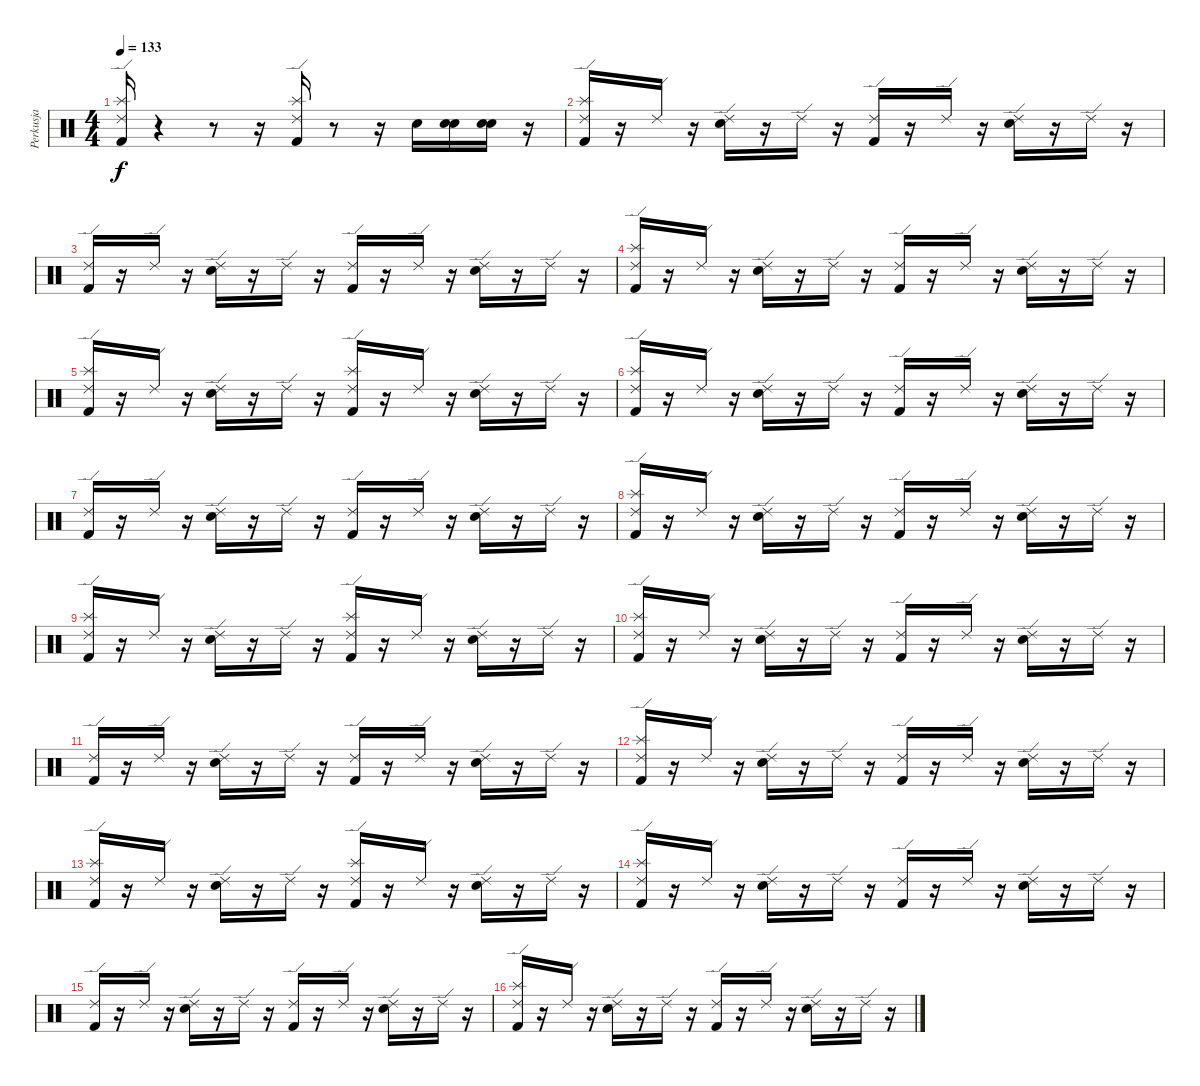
\track ("Perkusja" "Perkusja") {instrument percussion}
\staff {score}
\articulation defaults
\ts (4 4)
\tempo 133
\clef neutral
\ks c
("Kick (hit) 2" "Splash (hit)" "Ride (edge) 2").16{dy f} r.4 r.8 r.16 ("Kick (hit) 2" "Splash (hit)" "Ride (edge) 2").16 r.8 r.16 "Snare (hit) 2".16 ("Snare (hit)" "Snare (hit) 2").16 ("Snare (hit)" "Snare (hit) 2").16 r.16 |
("Splash (hit)" "Ride (edge) 2" "Kick (hit) 2").16 r.16 "Ride (edge) 2".16 r.16 ("Snare (hit) 2" "Ride (edge) 2").16 r.16 "Ride (edge) 2".16 r.16 ("Kick (hit) 2" "Ride (edge) 2").16 r.16 "Ride (edge) 2".16 r.16 ("Snare (hit) 2" "Ride (edge) 2").16 r.16 "Ride (edge) 2".16 r.16 |
("Ride (edge) 2" "Kick (hit) 2").16 r.16 "Ride (edge) 2".16 r.16 ("Snare (hit) 2" "Ride (edge) 2").16 r.16 "Ride (edge) 2".16 r.16 ("Kick (hit) 2" "Ride (edge) 2").16 r.16 "Ride (edge) 2".16 r.16 ("Snare (hit) 2" "Ride (edge) 2").16 r.16 "Ride (edge) 2".16 r.16 |
("Splash (hit)" "Ride (edge) 2" "Kick (hit) 2").16 r.16 "Ride (edge) 2".16 r.16 ("Snare (hit) 2" "Ride (edge) 2").16 r.16 "Ride (edge) 2".16 r.16 ("Kick (hit) 2" "Ride (edge) 2").16 r.16 "Ride (edge) 2".16 r.16 ("Snare (hit) 2" "Ride (edge) 2").16 r.16 "Ride (edge) 2".16 r.16 |
("Splash (hit)" "Ride (edge) 2" "Kick (hit) 2").16 r.16 "Ride (edge) 2".16 r.16 ("Snare (hit) 2" "Ride (edge) 2").16 r.16 "Ride (edge) 2".16 r.16 ("Splash (hit)" "Kick (hit) 2" "Ride (edge) 2").16 r.16 "Ride (edge) 2".16 r.16 ("Snare (hit) 2" "Ride (edge) 2").16 r.16 "Ride (edge) 2".16 r.16 |
("Splash (hit)" "Ride (edge) 2" "Kick (hit) 2").16 r.16 "Ride (edge) 2".16 r.16 ("Snare (hit) 2" "Ride (edge) 2").16 r.16 "Ride (edge) 2".16 r.16 ("Kick (hit) 2" "Ride (edge) 2").16 r.16 "Ride (edge) 2".16 r.16 ("Snare (hit) 2" "Ride (edge) 2").16 r.16 "Ride (edge) 2".16 r.16 |
("Ride (edge) 2" "Kick (hit) 2").16 r.16 "Ride (edge) 2".16 r.16 ("Snare (hit) 2" "Ride (edge) 2").16 r.16 "Ride (edge) 2".16 r.16 ("Kick (hit) 2" "Ride (edge) 2").16 r.16 "Ride (edge) 2".16 r.16 ("Snare (hit) 2" "Ride (edge) 2").16 r.16 "Ride (edge) 2".16 r.16 |
("Splash (hit)" "Ride (edge) 2" "Kick (hit) 2").16 r.16 "Ride (edge) 2".16 r.16 ("Snare (hit) 2" "Ride (edge) 2").16 r.16 "Ride (edge) 2".16 r.16 ("Kick (hit) 2" "Ride (edge) 2").16 r.16 "Ride (edge) 2".16 r.16 ("Snare (hit) 2" "Ride (edge) 2").16 r.16 "Ride (edge) 2".16 r.16 |
("Splash (hit)" "Ride (edge) 2" "Kick (hit) 2").16 r.16 "Ride (edge) 2".16 r.16 ("Snare (hit) 2" "Ride (edge) 2").16 r.16 "Ride (edge) 2".16 r.16 ("Splash (hit)" "Kick (hit) 2" "Ride (edge) 2").16 r.16 "Ride (edge) 2".16 r.16 ("Snare (hit) 2" "Ride (edge) 2").16 r.16 "Ride (edge) 2".16 r.16 |
("Splash (hit)" "Ride (edge) 2" "Kick (hit) 2").16 r.16 "Ride (edge) 2".16 r.16 ("Snare (hit) 2" "Ride (edge) 2").16 r.16 "Ride (edge) 2".16 r.16 ("Kick (hit) 2" "Ride (edge) 2").16 r.16 "Ride (edge) 2".16 r.16 ("Snare (hit) 2" "Ride (edge) 2").16 r.16 "Ride (edge) 2".16 r.16 |
("Ride (edge) 2" "Kick (hit) 2").16 r.16 "Ride (edge) 2".16 r.16 ("Snare (hit) 2" "Ride (edge) 2").16 r.16 "Ride (edge) 2".16 r.16 ("Kick (hit) 2" "Ride (edge) 2").16 r.16 "Ride (edge) 2".16 r.16 ("Snare (hit) 2" "Ride (edge) 2").16 r.16 "Ride (edge) 2".16 r.16 |
("Splash (hit)" "Ride (edge) 2" "Kick (hit) 2").16 r.16 "Ride (edge) 2".16 r.16 ("Snare (hit) 2" "Ride (edge) 2").16 r.16 "Ride (edge) 2".16 r.16 ("Kick (hit) 2" "Ride (edge) 2").16 r.16 "Ride (edge) 2".16 r.16 ("Snare (hit) 2" "Ride (edge) 2").16 r.16 "Ride (edge) 2".16 r.16 |
("Splash (hit)" "Ride (edge) 2" "Kick (hit) 2").16 r.16 "Ride (edge) 2".16 r.16 ("Snare (hit) 2" "Ride (edge) 2").16 r.16 "Ride (edge) 2".16 r.16 ("Splash (hit)" "Kick (hit) 2" "Ride (edge) 2").16 r.16 "Ride (edge) 2".16 r.16 ("Snare (hit) 2" "Ride (edge) 2").16 r.16 "Ride (edge) 2".16 r.16 |
("Splash (hit)" "Ride (edge) 2" "Kick (hit) 2").16 r.16 "Ride (edge) 2".16 r.16 ("Snare (hit) 2" "Ride (edge) 2").16 r.16 "Ride (edge) 2".16 r.16 ("Kick (hit) 2" "Ride (edge) 2").16 r.16 "Ride (edge) 2".16 r.16 ("Snare (hit) 2" "Ride (edge) 2").16 r.16 "Ride (edge) 2".16 r.16 |
("Ride (edge) 2" "Kick (hit) 2").16 r.16 "Ride (edge) 2".16 r.16 ("Snare (hit) 2" "Ride (edge) 2").16 r.16 "Ride (edge) 2".16 r.16 ("Kick (hit) 2" "Ride (edge) 2").16 r.16 "Ride (edge) 2".16 r.16 ("Snare (hit) 2" "Ride (edge) 2").16 r.16 "Ride (edge) 2".16 r.16 |
("Splash (hit)" "Ride (edge) 2" "Kick (hit) 2").16 r.16 "Ride (edge) 2".16 r.16 ("Snare (hit) 2" "Ride (edge) 2").16 r.16 "Ride (edge) 2".16 r.16 ("Kick (hit) 2" "Ride (edge) 2").16 r.16 "Ride (edge) 2".16 r.16 ("Snare (hit) 2" "Ride (edge) 2").16 r.16 "Ride (edge) 2".16 r.16
